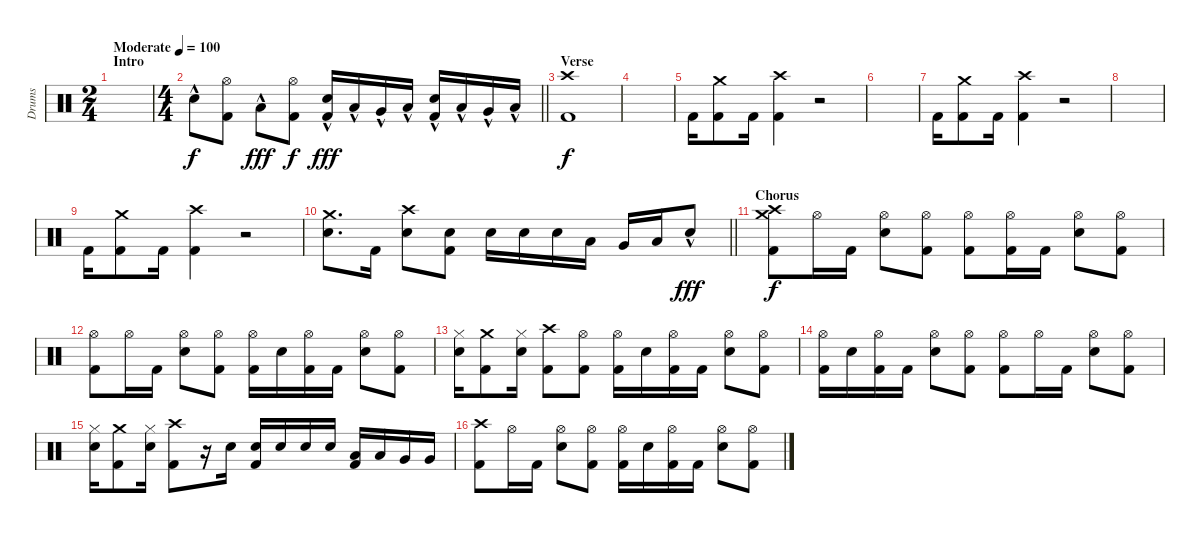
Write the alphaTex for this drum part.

\track ("Drums" "Drums") {instrument percussion}
\staff {score}
\articulation defaults
\ts (2 4)
\section ("" "Intro")
\tempo (100 "Moderate")
\clef neutral
\ks c
|
\ts (4 4)
\barLineRight lightlight "Snare (hit) 2"{hac}.8
("Hi-Hat (open)" "Kick (hit) 2").8{dy f} "Low Tom (hit)"{hac}.8{dy fff} ("Hi-Hat (open)" "Kick (hit) 2").8{dy f} ("Snare (hit) 2"{hac} "Kick (hit) 2").16{dy fff} "Low Tom (hit)"{hac}.16 "Very Low Tom (hit)"{hac}.16 "Low Floor Tom (hit)"{hac}.16 ("Snare (hit) 2"{hac} "Kick (hit) 2").16 "Low Tom (hit)"{hac}.16 "Very Low Tom (hit)"{hac}.16 "Low Floor Tom (hit)"{hac}.16 |
\section ("" "Verse")
("Crash high (hit)" "Kick (hit) 2").1{dy f} |
|
"Kick (hit) 2".16 ("Crash medium (hit)" "Kick (hit) 2").8 "Kick (hit) 2".16 ("Crash high (hit)" "Kick (hit) 2").4 r.2 |
|
"Kick (hit) 2".16 ("Crash medium (hit)" "Kick (hit) 2").8 "Kick (hit) 2".16 ("Crash high (hit)" "Kick (hit) 2").4 r.2 |
|
"Kick (hit) 2".16 ("Crash medium (hit)" "Kick (hit) 2").8 "Kick (hit) 2".16 ("Crash high (hit)" "Kick (hit) 2").4 r.2 |
\barLineRight lightlight
("Crash medium (hit)" "Snare (hit) 2").8{d} "Kick (hit) 2".16 ("Crash high (hit)" "Snare (hit) 2").8 ("Snare (hit) 2" "Kick (hit) 2").8 "Snare (hit) 2".16 "Snare (hit) 2".16 "Snare (hit) 2".16 "Low Tom (hit)".16 "Very Low Tom (hit)".16 "Low Floor Tom (hit)".16 "Snare (hit) 2"{hac}.8{dy fff} |
\section ("" "Chorus")
("Crash medium (hit)" "Crash high (hit)" "Kick (hit) 2").8{dy f} "Hi-Hat (open)".16 "Kick (hit) 2".16 ("Hi-Hat (open)" "Snare (hit) 2").8 ("Hi-Hat (open)" "Kick (hit) 2").8 ("Hi-Hat (open)" "Kick (hit) 2").8 ("Hi-Hat (open)" "Kick (hit) 2").16 "Kick (hit) 2".16 ("Hi-Hat (open)" "Snare (hit) 2").8 ("Hi-Hat (open)" "Kick (hit) 2").8 |
("Hi-Hat (open)" "Kick (hit) 2").8 "Hi-Hat (open)".16 "Kick (hit) 2".16 ("Hi-Hat (open)" "Snare (hit) 2").8 ("Hi-Hat (open)" "Kick (hit) 2").8 ("Hi-Hat (open)" "Kick (hit) 2").16 "Snare (hit) 2".16 ("Hi-Hat (open)" "Kick (hit) 2").16 "Kick (hit) 2".16 ("Hi-Hat (open)" "Snare (hit) 2").8 ("Hi-Hat (open)" "Kick (hit) 2").8 |
("Hi-Hat (closed)" "Snare (hit) 2").16 ("Crash medium (hit)" "Kick (hit) 2").8 ("Hi-Hat (closed)" "Snare (hit) 2").16 ("Crash high (hit)" "Kick (hit) 2").8 ("Hi-Hat (open)" "Kick (hit) 2").8 ("Hi-Hat (open)" "Kick (hit) 2").16 "Snare (hit) 2".16 ("Hi-Hat (open)" "Kick (hit) 2").16 "Kick (hit) 2".16 ("Hi-Hat (open)" "Snare (hit) 2").8 ("Hi-Hat (open)" "Kick (hit) 2").8 |
("Hi-Hat (open)" "Kick (hit) 2").16 "Snare (hit) 2".16 ("Hi-Hat (open)" "Kick (hit) 2").16 "Kick (hit) 2".16 ("Hi-Hat (open)" "Snare (hit) 2").8 ("Hi-Hat (open)" "Kick (hit) 2").8 ("Hi-Hat (open)" "Kick (hit) 2").8 "Hi-Hat (open)".16 "Kick (hit) 2".16 ("Hi-Hat (open)" "Snare (hit) 2").8 ("Hi-Hat (open)" "Kick (hit) 2").8 |
("Hi-Hat (closed)" "Snare (hit) 2").16 ("Crash medium (hit)" "Kick (hit) 2").8 ("Hi-Hat (closed)" "Snare (hit) 2").16 ("Crash high (hit)" "Kick (hit) 2").8 r.16 "Snare (hit) 2".16 ("Snare (hit) 2" "Kick (hit) 2").16 "Snare (hit) 2".16 "Snare (hit) 2".16 "Snare (hit) 2".16 ("Low Tom (hit)" "Kick (hit) 2").16 "Low Tom (hit)".16 "Very Low Tom (hit)".16 "Very Low Tom (hit)".16 |
("Crash high (hit)" "Kick (hit) 2").8 "Hi-Hat (open)".16 "Kick (hit) 2".16 ("Hi-Hat (open)" "Snare (hit) 2").8 ("Hi-Hat (open)" "Kick (hit) 2").8 ("Hi-Hat (open)" "Kick (hit) 2").16 "Snare (hit) 2".16 ("Hi-Hat (open)" "Kick (hit) 2").16 "Kick (hit) 2".16 ("Hi-Hat (open)" "Snare (hit) 2").8 ("Hi-Hat (open)" "Kick (hit) 2").8
